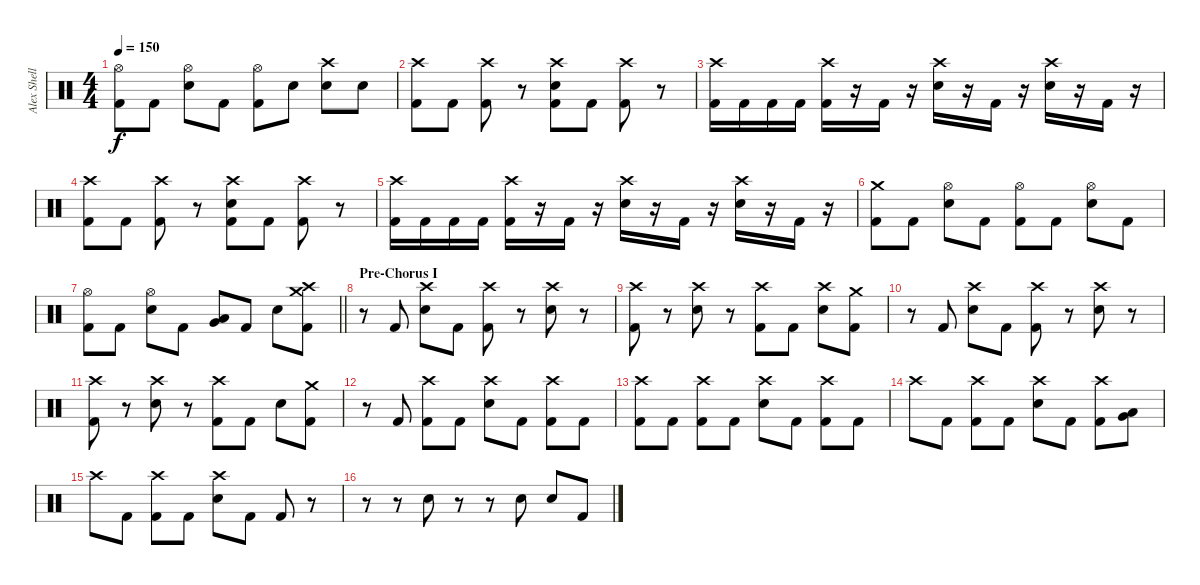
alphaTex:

\track ("Alex Shellnutt" "Alex Shell") {instrument percussion}
\staff {score}
\articulation defaults
\ts (4 4)
\tempo 150
\clef neutral
\ks c
("Hi-Hat (open)" "Kick (hit) 2").8{dy f} "Kick (hit) 2".8 ("Hi-Hat (open)" "Snare (hit) 2").8 "Kick (hit) 2".8 ("Hi-Hat (open)" "Kick (hit) 2").8 "Snare (hit) 2".8 ("Crash high (hit)" "Snare (hit) 2").8 "Snare (hit) 2".8 |
("Crash high (hit)" "Kick (hit) 2").8 "Kick (hit) 2".8 ("Crash high (hit)" "Kick (hit) 2").8 r.8 ("Crash high (hit)" "Snare (hit) 2" "Kick (hit) 2").8 "Kick (hit) 2".8 ("Crash high (hit)" "Kick (hit) 2").8 r.8 |
("Crash high (hit)" "Kick (hit) 2").16 "Kick (hit) 2".16 "Kick (hit) 2".16 "Kick (hit) 2".16 ("Crash high (hit)" "Kick (hit) 2").16 r.16 "Kick (hit) 2".16 r.16 ("Crash high (hit)" "Snare (hit) 2").16 r.16 "Kick (hit) 2".16 r.16 ("Crash high (hit)" "Snare (hit) 2").16 r.16 "Kick (hit) 2".16 r.16 |
("Crash high (hit)" "Kick (hit) 2").8 "Kick (hit) 2".8 ("Crash high (hit)" "Kick (hit) 2").8 r.8 ("Crash high (hit)" "Snare (hit) 2" "Kick (hit) 2").8 "Kick (hit) 2".8 ("Crash high (hit)" "Kick (hit) 2").8 r.8 |
("Crash high (hit)" "Kick (hit) 2").16 "Kick (hit) 2".16 "Kick (hit) 2".16 "Kick (hit) 2".16 ("Crash high (hit)" "Kick (hit) 2").16 r.16 "Kick (hit) 2".16 r.16 ("Crash high (hit)" "Snare (hit) 2").16 r.16 "Kick (hit) 2".16 r.16 ("Crash high (hit)" "Snare (hit) 2").16 r.16 "Kick (hit) 2".16 r.16 |
("Crash medium (hit)" "Kick (hit) 2").8 "Kick (hit) 2".8 ("Hi-Hat (open)" "Snare (hit) 2").8 "Kick (hit) 2".8 ("Hi-Hat (open)" "Kick (hit) 2").8 "Kick (hit) 2".8 ("Hi-Hat (open)" "Snare (hit) 2").8 "Kick (hit) 2".8 |
\barLineRight lightlight
("Hi-Hat (open)" "Kick (hit) 2").8 "Kick (hit) 2".8 ("Hi-Hat (open)" "Snare (hit) 2").8 "Kick (hit) 2".8 ("Very Low Tom (hit)" "Low Floor Tom (hit)").8 "Kick (hit) 2".8 "Snare (hit) 2".8 ("Crash medium (hit)" "Crash high (hit)" "Kick (hit) 2").8 |
\section ("" "Pre-Chorus I")
r.8 "Kick (hit) 2".8 ("Crash high (hit)" "Snare (hit) 2").8 "Kick (hit) 2".8 ("Crash high (hit)" "Kick (hit) 2").8 r.8 ("Crash high (hit)" "Snare (hit) 2").8 r.8 |
("Crash high (hit)" "Kick (hit) 2").8 r.8 ("Crash high (hit)" "Snare (hit) 2").8 r.8 ("Crash high (hit)" "Kick (hit) 2").8 "Kick (hit) 2".8 ("Crash high (hit)" "Snare (hit) 2").8 ("Crash medium (hit)" "Kick (hit) 2").8 |
r.8 "Kick (hit) 2".8 ("Crash high (hit)" "Snare (hit) 2").8 "Kick (hit) 2".8 ("Crash high (hit)" "Kick (hit) 2").8 r.8 ("Crash high (hit)" "Snare (hit) 2").8 r.8 |
("Crash high (hit)" "Kick (hit) 2").8 r.8 ("Crash high (hit)" "Snare (hit) 2").8 r.8 ("Crash high (hit)" "Kick (hit) 2").8 "Kick (hit) 2".8 "Snare (hit) 2".8 ("Crash medium (hit)" "Kick (hit) 2").8 |
r.8 "Kick (hit) 2".8 ("Crash high (hit)" "Kick (hit) 2").8 "Kick (hit) 2".8 ("Crash high (hit)" "Snare (hit) 2").8 "Kick (hit) 2".8 ("Crash high (hit)" "Kick (hit) 2").8 "Kick (hit) 2".8 |
("Crash high (hit)" "Kick (hit) 2").8 "Kick (hit) 2".8 ("Crash high (hit)" "Kick (hit) 2").8 "Kick (hit) 2".8 ("Crash high (hit)" "Snare (hit) 2").8 "Kick (hit) 2".8 ("Crash high (hit)" "Kick (hit) 2").8 "Kick (hit) 2".8 |
"Crash high (hit)".8 "Kick (hit) 2".8 ("Crash high (hit)" "Kick (hit) 2").8 "Kick (hit) 2".8 ("Crash high (hit)" "Snare (hit) 2").8 "Kick (hit) 2".8 ("Crash high (hit)" "Kick (hit) 2").8 ("Low Floor Tom (hit)" "Very Low Tom (hit)").8 |
"Crash high (hit)".8 "Kick (hit) 2".8 ("Crash high (hit)" "Kick (hit) 2").8 "Kick (hit) 2".8 ("Crash high (hit)" "Snare (hit) 2").8 "Kick (hit) 2".8 "Kick (hit) 2".8 r.8 |
r.8 r.8 "Snare (hit) 2".8 r.8 r.8 "Snare (hit) 2".8 "Snare (hit) 2".8 "Kick (hit) 2".8
